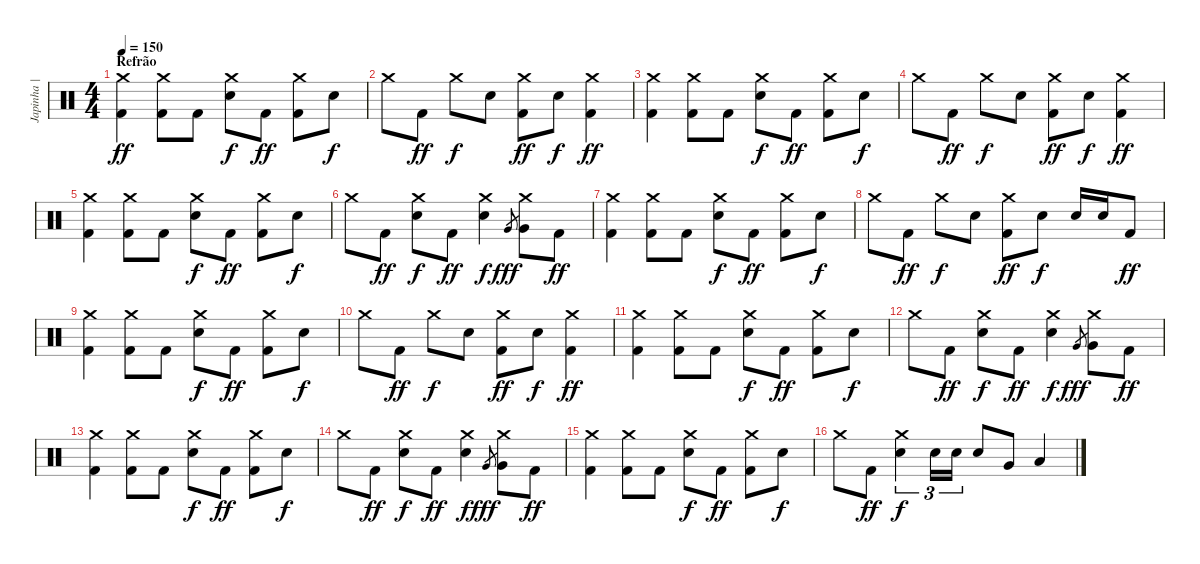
\track ("Japinha | Bateria" "Japinha | ") {instrument percussion}
\staff {score}
\articulation defaults
\ts (4 4)
\section ("" "Refrão")
\tempo 150
\clef neutral
\ks c
("Crash medium (hit)" "Kick (hit) 2").4{dy ff} ("Crash medium (hit)" "Kick (hit) 2").8 "Kick (hit) 2".8 ("Crash medium (hit)" "Electric Snare (hit)").8{dy f} "Kick (hit) 2".8{dy ff} ("Crash medium (hit)" "Kick (hit) 2").8 "Electric Snare (hit)".8{dy f} |
"Crash medium (hit)".8 "Kick (hit) 2".8{dy ff} "Crash medium (hit)".8{dy f} "Electric Snare (hit)".8 ("Crash medium (hit)" "Kick (hit) 2").8{dy ff} "Electric Snare (hit)".8{dy f} ("Crash medium (hit)" "Kick (hit) 2").4{dy ff} |
("Crash medium (hit)" "Kick (hit) 2").4 ("Crash medium (hit)" "Kick (hit) 2").8 "Kick (hit) 2".8 ("Crash medium (hit)" "Electric Snare (hit)").8{dy f} "Kick (hit) 2".8{dy ff} ("Crash medium (hit)" "Kick (hit) 2").8 "Electric Snare (hit)".8{dy f} |
"Crash medium (hit)".8 "Kick (hit) 2".8{dy ff} "Crash medium (hit)".8{dy f} "Electric Snare (hit)".8 ("Crash medium (hit)" "Kick (hit) 2").8{dy ff} "Electric Snare (hit)".8{dy f} ("Crash medium (hit)" "Kick (hit) 2").4{dy ff} |
("Crash medium (hit)" "Kick (hit) 2").4 ("Crash medium (hit)" "Kick (hit) 2").8 "Kick (hit) 2".8 ("Crash medium (hit)" "Electric Snare (hit)").8{dy f} "Kick (hit) 2".8{dy ff} ("Crash medium (hit)" "Kick (hit) 2").8 "Electric Snare (hit)".8{dy f} |
"Crash medium (hit)".8 "Kick (hit) 2".8{dy ff} ("Crash medium (hit)" "Electric Snare (hit)").8{dy f} "Kick (hit) 2".8{dy ff} ("Crash medium (hit)" "Electric Snare (hit)").4{dy f} "Very Low Tom (hit)".8{gr dy fff} ("Crash medium (hit)" "Very Low Tom (hit)").8 "Kick (hit) 2".8{dy ff} |
("Crash medium (hit)" "Kick (hit) 2").4 ("Crash medium (hit)" "Kick (hit) 2").8 "Kick (hit) 2".8 ("Crash medium (hit)" "Electric Snare (hit)").8{dy f} "Kick (hit) 2".8{dy ff} ("Crash medium (hit)" "Kick (hit) 2").8 "Electric Snare (hit)".8{dy f} |
"Crash medium (hit)".8 "Kick (hit) 2".8{dy ff} "Crash medium (hit)".8{dy f} "Electric Snare (hit)".8 ("Crash medium (hit)" "Kick (hit) 2").8{dy ff} "Electric Snare (hit)".8{dy f} "Electric Snare (hit)".16 "Electric Snare (hit)".16 "Kick (hit) 2".8{dy ff} |
("Crash medium (hit)" "Kick (hit) 2").4 ("Crash medium (hit)" "Kick (hit) 2").8 "Kick (hit) 2".8 ("Crash medium (hit)" "Electric Snare (hit)").8{dy f} "Kick (hit) 2".8{dy ff} ("Crash medium (hit)" "Kick (hit) 2").8 "Electric Snare (hit)".8{dy f} |
"Crash medium (hit)".8 "Kick (hit) 2".8{dy ff} "Crash medium (hit)".8{dy f} "Electric Snare (hit)".8 ("Crash medium (hit)" "Kick (hit) 2").8{dy ff} "Electric Snare (hit)".8{dy f} ("Crash medium (hit)" "Kick (hit) 2").4{dy ff} |
("Crash medium (hit)" "Kick (hit) 2").4 ("Crash medium (hit)" "Kick (hit) 2").8 "Kick (hit) 2".8 ("Crash medium (hit)" "Electric Snare (hit)").8{dy f} "Kick (hit) 2".8{dy ff} ("Crash medium (hit)" "Kick (hit) 2").8 "Electric Snare (hit)".8{dy f} |
"Crash medium (hit)".8 "Kick (hit) 2".8{dy ff} ("Crash medium (hit)" "Electric Snare (hit)").8{dy f} "Kick (hit) 2".8{dy ff} ("Crash medium (hit)" "Electric Snare (hit)").4{dy f} "Very Low Tom (hit)".8{gr dy fff} ("Crash medium (hit)" "Very Low Tom (hit)").8 "Kick (hit) 2".8{dy ff} |
("Crash medium (hit)" "Kick (hit) 2").4 ("Crash medium (hit)" "Kick (hit) 2").8 "Kick (hit) 2".8 ("Crash medium (hit)" "Electric Snare (hit)").8{dy f} "Kick (hit) 2".8{dy ff} ("Crash medium (hit)" "Kick (hit) 2").8 "Electric Snare (hit)".8{dy f} |
"Crash medium (hit)".8 "Kick (hit) 2".8{dy ff} ("Crash medium (hit)" "Electric Snare (hit)").8{dy f} "Kick (hit) 2".8{dy ff} ("Crash medium (hit)" "Electric Snare (hit)").4{dy f} "Very Low Tom (hit)".8{gr dy fff} ("Crash medium (hit)" "Very Low Tom (hit)").8 "Kick (hit) 2".8{dy ff} |
("Crash medium (hit)" "Kick (hit) 2").4 ("Crash medium (hit)" "Kick (hit) 2").8 "Kick (hit) 2".8 ("Crash medium (hit)" "Electric Snare (hit)").8{dy f} "Kick (hit) 2".8{dy ff} ("Crash medium (hit)" "Kick (hit) 2").8 "Electric Snare (hit)".8{dy f} |
"Crash medium (hit)".8 "Kick (hit) 2".8{dy ff} ("Crash medium (hit)" "Electric Snare (hit)").4{tu (3 2) dy f} "Electric Snare (hit)".16{tu (3 2)} "Electric Snare (hit)".16{tu (3 2)} "Electric Snare (hit)".8 "Very Low Tom (hit)".8 "Low Tom (hit)".4
